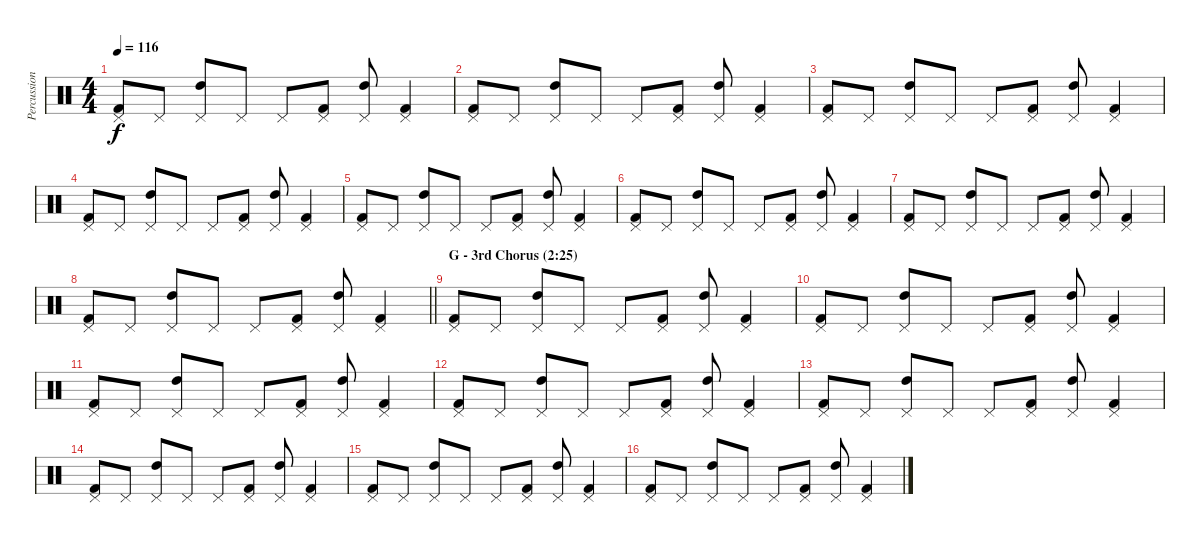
\track ("Percussion" "Percussion") {instrument percussion}
\staff {score}
\articulation defaults
\ts (4 4)
\tempo 116
\clef neutral
\ks c
("Kick (hit) 2" "Pedal Hi-Hat (hit)").8{dy f} "Pedal Hi-Hat (hit)".8 ("High Tom (hit)" "Pedal Hi-Hat (hit)").8 "Pedal Hi-Hat (hit)".8 "Pedal Hi-Hat (hit)".8 ("Kick (hit) 2" "Pedal Hi-Hat (hit)").8 ("High Tom (hit)" "Pedal Hi-Hat (hit)").8 ("Kick (hit) 2" "Pedal Hi-Hat (hit)").4 |
("Kick (hit) 2" "Pedal Hi-Hat (hit)").8 "Pedal Hi-Hat (hit)".8 ("High Tom (hit)" "Pedal Hi-Hat (hit)").8 "Pedal Hi-Hat (hit)".8 "Pedal Hi-Hat (hit)".8 ("Kick (hit) 2" "Pedal Hi-Hat (hit)").8 ("High Tom (hit)" "Pedal Hi-Hat (hit)").8 ("Kick (hit) 2" "Pedal Hi-Hat (hit)").4 |
("Kick (hit) 2" "Pedal Hi-Hat (hit)").8 "Pedal Hi-Hat (hit)".8 ("High Tom (hit)" "Pedal Hi-Hat (hit)").8 "Pedal Hi-Hat (hit)".8 "Pedal Hi-Hat (hit)".8 ("Kick (hit) 2" "Pedal Hi-Hat (hit)").8 ("High Tom (hit)" "Pedal Hi-Hat (hit)").8 ("Kick (hit) 2" "Pedal Hi-Hat (hit)").4 |
("Kick (hit) 2" "Pedal Hi-Hat (hit)").8 "Pedal Hi-Hat (hit)".8 ("High Tom (hit)" "Pedal Hi-Hat (hit)").8 "Pedal Hi-Hat (hit)".8 "Pedal Hi-Hat (hit)".8 ("Kick (hit) 2" "Pedal Hi-Hat (hit)").8 ("High Tom (hit)" "Pedal Hi-Hat (hit)").8 ("Kick (hit) 2" "Pedal Hi-Hat (hit)").4 |
("Kick (hit) 2" "Pedal Hi-Hat (hit)").8 "Pedal Hi-Hat (hit)".8 ("High Tom (hit)" "Pedal Hi-Hat (hit)").8 "Pedal Hi-Hat (hit)".8 "Pedal Hi-Hat (hit)".8 ("Kick (hit) 2" "Pedal Hi-Hat (hit)").8 ("High Tom (hit)" "Pedal Hi-Hat (hit)").8 ("Kick (hit) 2" "Pedal Hi-Hat (hit)").4 |
("Kick (hit) 2" "Pedal Hi-Hat (hit)").8 "Pedal Hi-Hat (hit)".8 ("High Tom (hit)" "Pedal Hi-Hat (hit)").8 "Pedal Hi-Hat (hit)".8 "Pedal Hi-Hat (hit)".8 ("Kick (hit) 2" "Pedal Hi-Hat (hit)").8 ("High Tom (hit)" "Pedal Hi-Hat (hit)").8 ("Kick (hit) 2" "Pedal Hi-Hat (hit)").4 |
("Kick (hit) 2" "Pedal Hi-Hat (hit)").8 "Pedal Hi-Hat (hit)".8 ("High Tom (hit)" "Pedal Hi-Hat (hit)").8 "Pedal Hi-Hat (hit)".8 "Pedal Hi-Hat (hit)".8 ("Kick (hit) 2" "Pedal Hi-Hat (hit)").8 ("High Tom (hit)" "Pedal Hi-Hat (hit)").8 ("Kick (hit) 2" "Pedal Hi-Hat (hit)").4 |
\barLineRight lightlight
("Kick (hit) 2" "Pedal Hi-Hat (hit)").8 "Pedal Hi-Hat (hit)".8 ("High Tom (hit)" "Pedal Hi-Hat (hit)").8 "Pedal Hi-Hat (hit)".8 "Pedal Hi-Hat (hit)".8 ("Kick (hit) 2" "Pedal Hi-Hat (hit)").8 ("High Tom (hit)" "Pedal Hi-Hat (hit)").8 ("Kick (hit) 2" "Pedal Hi-Hat (hit)").4 |
\section ("" "G - 3rd Chorus (2:25)")
("Kick (hit) 2" "Pedal Hi-Hat (hit)").8 "Pedal Hi-Hat (hit)".8 ("High Tom (hit)" "Pedal Hi-Hat (hit)").8 "Pedal Hi-Hat (hit)".8 "Pedal Hi-Hat (hit)".8 ("Kick (hit) 2" "Pedal Hi-Hat (hit)").8 ("High Tom (hit)" "Pedal Hi-Hat (hit)").8 ("Kick (hit) 2" "Pedal Hi-Hat (hit)").4 |
("Kick (hit) 2" "Pedal Hi-Hat (hit)").8 "Pedal Hi-Hat (hit)".8 ("High Tom (hit)" "Pedal Hi-Hat (hit)").8 "Pedal Hi-Hat (hit)".8 "Pedal Hi-Hat (hit)".8 ("Kick (hit) 2" "Pedal Hi-Hat (hit)").8 ("High Tom (hit)" "Pedal Hi-Hat (hit)").8 ("Kick (hit) 2" "Pedal Hi-Hat (hit)").4 |
("Kick (hit) 2" "Pedal Hi-Hat (hit)").8 "Pedal Hi-Hat (hit)".8 ("High Tom (hit)" "Pedal Hi-Hat (hit)").8 "Pedal Hi-Hat (hit)".8 "Pedal Hi-Hat (hit)".8 ("Kick (hit) 2" "Pedal Hi-Hat (hit)").8 ("High Tom (hit)" "Pedal Hi-Hat (hit)").8 ("Kick (hit) 2" "Pedal Hi-Hat (hit)").4 |
("Kick (hit) 2" "Pedal Hi-Hat (hit)").8 "Pedal Hi-Hat (hit)".8 ("High Tom (hit)" "Pedal Hi-Hat (hit)").8 "Pedal Hi-Hat (hit)".8 "Pedal Hi-Hat (hit)".8 ("Kick (hit) 2" "Pedal Hi-Hat (hit)").8 ("High Tom (hit)" "Pedal Hi-Hat (hit)").8 ("Kick (hit) 2" "Pedal Hi-Hat (hit)").4 |
("Kick (hit) 2" "Pedal Hi-Hat (hit)").8 "Pedal Hi-Hat (hit)".8 ("High Tom (hit)" "Pedal Hi-Hat (hit)").8 "Pedal Hi-Hat (hit)".8 "Pedal Hi-Hat (hit)".8 ("Kick (hit) 2" "Pedal Hi-Hat (hit)").8 ("High Tom (hit)" "Pedal Hi-Hat (hit)").8 ("Kick (hit) 2" "Pedal Hi-Hat (hit)").4 |
("Kick (hit) 2" "Pedal Hi-Hat (hit)").8 "Pedal Hi-Hat (hit)".8 ("High Tom (hit)" "Pedal Hi-Hat (hit)").8 "Pedal Hi-Hat (hit)".8 "Pedal Hi-Hat (hit)".8 ("Kick (hit) 2" "Pedal Hi-Hat (hit)").8 ("High Tom (hit)" "Pedal Hi-Hat (hit)").8 ("Kick (hit) 2" "Pedal Hi-Hat (hit)").4 |
("Kick (hit) 2" "Pedal Hi-Hat (hit)").8 "Pedal Hi-Hat (hit)".8 ("High Tom (hit)" "Pedal Hi-Hat (hit)").8 "Pedal Hi-Hat (hit)".8 "Pedal Hi-Hat (hit)".8 ("Kick (hit) 2" "Pedal Hi-Hat (hit)").8 ("High Tom (hit)" "Pedal Hi-Hat (hit)").8 ("Kick (hit) 2" "Pedal Hi-Hat (hit)").4 |
("Kick (hit) 2" "Pedal Hi-Hat (hit)").8 "Pedal Hi-Hat (hit)".8 ("High Tom (hit)" "Pedal Hi-Hat (hit)").8 "Pedal Hi-Hat (hit)".8 "Pedal Hi-Hat (hit)".8 ("Kick (hit) 2" "Pedal Hi-Hat (hit)").8 ("High Tom (hit)" "Pedal Hi-Hat (hit)").8 ("Kick (hit) 2" "Pedal Hi-Hat (hit)").4
